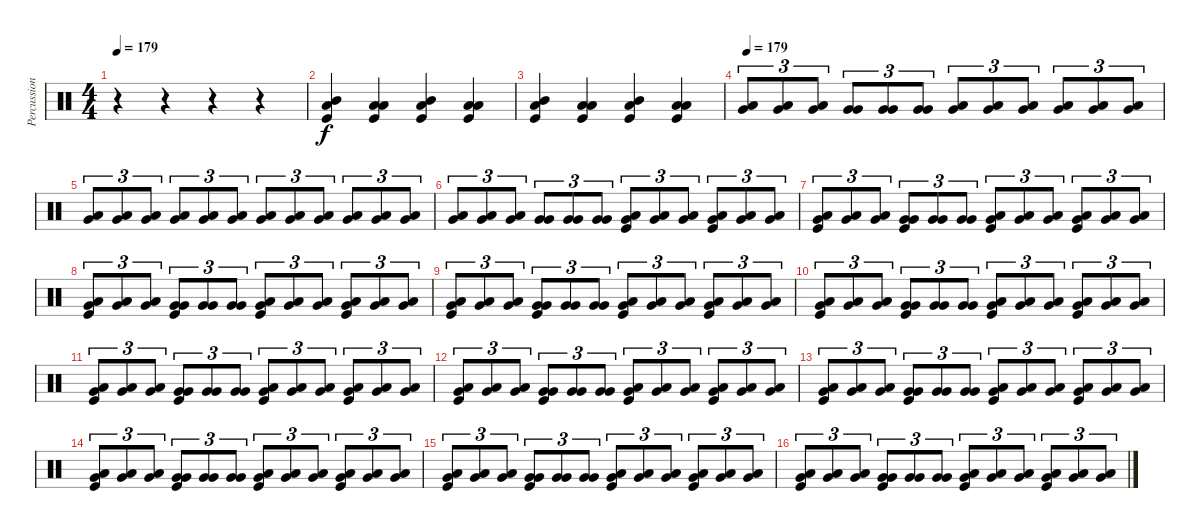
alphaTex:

\track ("Percussion" "Percussion") {instrument percussion}
\staff {score}
\articulation defaults
\ts (4 4)
\tempo 179
\tempo 223
\tempo 179
\clef neutral
\ks c
r.4{dy f} r.4 r.4 r.4 |
("Mid Tom (hit)" "Low Tom (hit)" "Kick (hit)").4 ("Low Floor Tom (hit)" "Low Floor Tom (hit)" "Kick (hit)").4 ("Mid Tom (hit)" "Low Tom (hit)" "Kick (hit)").4 ("Low Floor Tom (hit)" "Low Floor Tom (hit)" "Kick (hit)").4 |
("Mid Tom (hit)" "Low Tom (hit)" "Kick (hit)").4 ("Low Floor Tom (hit)" "Low Floor Tom (hit)" "Kick (hit)").4 ("Mid Tom (hit)" "Low Tom (hit)" "Kick (hit)").4 ("Low Floor Tom (hit)" "Low Floor Tom (hit)" "Kick (hit)").4 |
\tempo 179
("Low Tom (hit)" "Very Low Tom (hit)").8{tu (3 2)} ("Low Tom (hit)" "Very Low Tom (hit)").8{tu (3 2)} ("Low Tom (hit)" "Very Low Tom (hit)").8{tu (3 2)} ("Very Low Tom (hit)" "Very Low Tom (hit)").8{tu (3 2)} ("Very Low Tom (hit)" "Very Low Tom (hit)").8{tu (3 2)} ("Very Low Tom (hit)" "Very Low Tom (hit)").8{tu (3 2)} ("Low Tom (hit)" "Very Low Tom (hit)").8{tu (3 2)} ("Low Tom (hit)" "Very Low Tom (hit)").8{tu (3 2)} ("Low Tom (hit)" "Very Low Tom (hit)").8{tu (3 2)} ("Very Low Tom (hit)" "Low Floor Tom (hit)").8{tu (3 2)} ("Very Low Tom (hit)" "Low Floor Tom (hit)").8{tu (3 2)} ("Very Low Tom (hit)" "Low Floor Tom (hit)").8{tu (3 2)} |
("Low Tom (hit)" "Very Low Tom (hit)").8{tu (3 2)} ("Low Tom (hit)" "Very Low Tom (hit)").8{tu (3 2)} ("Low Tom (hit)" "Very Low Tom (hit)").8{tu (3 2)} ("Very Low Tom (hit)" "Low Floor Tom (hit)").8{tu (3 2)} ("Very Low Tom (hit)" "Low Floor Tom (hit)").8{tu (3 2)} ("Very Low Tom (hit)" "Low Floor Tom (hit)").8{tu (3 2)} ("Low Tom (hit)" "Very Low Tom (hit)").8{tu (3 2)} ("Low Tom (hit)" "Very Low Tom (hit)").8{tu (3 2)} ("Low Tom (hit)" "Very Low Tom (hit)").8{tu (3 2)} ("Very Low Tom (hit)" "Low Floor Tom (hit)").8{tu (3 2)} ("Very Low Tom (hit)" "Low Floor Tom (hit)").8{tu (3 2)} ("Very Low Tom (hit)" "Low Floor Tom (hit)").8{tu (3 2)} |
("Low Tom (hit)" "Very Low Tom (hit)").8{tu (3 2)} ("Low Tom (hit)" "Very Low Tom (hit)").8{tu (3 2)} ("Low Tom (hit)" "Very Low Tom (hit)").8{tu (3 2)} ("Very Low Tom (hit)" "Very Low Tom (hit)").8{tu (3 2)} ("Very Low Tom (hit)" "Very Low Tom (hit)").8{tu (3 2)} ("Very Low Tom (hit)" "Very Low Tom (hit)").8{tu (3 2)} ("Low Tom (hit)" "Very Low Tom (hit)" "Kick (hit)").8{tu (3 2)} ("Low Tom (hit)" "Very Low Tom (hit)").8{tu (3 2)} ("Low Tom (hit)" "Very Low Tom (hit)").8{tu (3 2)} ("Very Low Tom (hit)" "Low Floor Tom (hit)" "Kick (hit)").8{tu (3 2)} ("Very Low Tom (hit)" "Low Floor Tom (hit)").8{tu (3 2)} ("Very Low Tom (hit)" "Low Floor Tom (hit)").8{tu (3 2)} |
("Low Tom (hit)" "Very Low Tom (hit)" "Kick (hit)").8{tu (3 2)} ("Low Tom (hit)" "Very Low Tom (hit)").8{tu (3 2)} ("Low Tom (hit)" "Very Low Tom (hit)").8{tu (3 2)} ("Very Low Tom (hit)" "Very Low Tom (hit)" "Kick (hit)").8{tu (3 2)} ("Very Low Tom (hit)" "Very Low Tom (hit)").8{tu (3 2)} ("Very Low Tom (hit)" "Very Low Tom (hit)").8{tu (3 2)} ("Low Tom (hit)" "Very Low Tom (hit)" "Kick (hit)").8{tu (3 2)} ("Low Tom (hit)" "Very Low Tom (hit)").8{tu (3 2)} ("Low Tom (hit)" "Very Low Tom (hit)").8{tu (3 2)} ("Very Low Tom (hit)" "Low Floor Tom (hit)" "Kick (hit)").8{tu (3 2)} ("Very Low Tom (hit)" "Low Floor Tom (hit)").8{tu (3 2)} ("Very Low Tom (hit)" "Low Floor Tom (hit)").8{tu (3 2)} |
("Low Tom (hit)" "Very Low Tom (hit)" "Kick (hit)").8{tu (3 2)} ("Low Tom (hit)" "Very Low Tom (hit)").8{tu (3 2)} ("Low Tom (hit)" "Very Low Tom (hit)").8{tu (3 2)} ("Very Low Tom (hit)" "Very Low Tom (hit)" "Kick (hit)").8{tu (3 2)} ("Very Low Tom (hit)" "Very Low Tom (hit)").8{tu (3 2)} ("Very Low Tom (hit)" "Very Low Tom (hit)").8{tu (3 2)} ("Low Tom (hit)" "Very Low Tom (hit)" "Kick (hit)").8{tu (3 2)} ("Low Tom (hit)" "Very Low Tom (hit)").8{tu (3 2)} ("Low Tom (hit)" "Very Low Tom (hit)").8{tu (3 2)} ("Very Low Tom (hit)" "Low Floor Tom (hit)" "Kick (hit)").8{tu (3 2)} ("Very Low Tom (hit)" "Low Floor Tom (hit)").8{tu (3 2)} ("Very Low Tom (hit)" "Low Floor Tom (hit)").8{tu (3 2)} |
("Low Tom (hit)" "Very Low Tom (hit)" "Kick (hit)").8{tu (3 2)} ("Low Tom (hit)" "Very Low Tom (hit)").8{tu (3 2)} ("Low Tom (hit)" "Very Low Tom (hit)").8{tu (3 2)} ("Very Low Tom (hit)" "Very Low Tom (hit)" "Kick (hit)").8{tu (3 2)} ("Very Low Tom (hit)" "Very Low Tom (hit)").8{tu (3 2)} ("Very Low Tom (hit)" "Very Low Tom (hit)").8{tu (3 2)} ("Low Tom (hit)" "Very Low Tom (hit)" "Kick (hit)").8{tu (3 2)} ("Low Tom (hit)" "Very Low Tom (hit)").8{tu (3 2)} ("Low Tom (hit)" "Very Low Tom (hit)").8{tu (3 2)} ("Very Low Tom (hit)" "Low Floor Tom (hit)" "Kick (hit)").8{tu (3 2)} ("Very Low Tom (hit)" "Low Floor Tom (hit)").8{tu (3 2)} ("Very Low Tom (hit)" "Low Floor Tom (hit)").8{tu (3 2)} |
("Low Tom (hit)" "Very Low Tom (hit)" "Kick (hit)").8{tu (3 2)} ("Low Tom (hit)" "Very Low Tom (hit)").8{tu (3 2)} ("Low Tom (hit)" "Very Low Tom (hit)").8{tu (3 2)} ("Very Low Tom (hit)" "Very Low Tom (hit)" "Kick (hit)").8{tu (3 2)} ("Very Low Tom (hit)" "Very Low Tom (hit)").8{tu (3 2)} ("Very Low Tom (hit)" "Very Low Tom (hit)").8{tu (3 2)} ("Low Tom (hit)" "Very Low Tom (hit)" "Kick (hit)").8{tu (3 2)} ("Low Tom (hit)" "Very Low Tom (hit)").8{tu (3 2)} ("Low Tom (hit)" "Very Low Tom (hit)").8{tu (3 2)} ("Very Low Tom (hit)" "Low Floor Tom (hit)" "Kick (hit)").8{tu (3 2)} ("Very Low Tom (hit)" "Low Floor Tom (hit)").8{tu (3 2)} ("Very Low Tom (hit)" "Low Floor Tom (hit)").8{tu (3 2)} |
("Low Tom (hit)" "Very Low Tom (hit)" "Kick (hit)").8{tu (3 2)} ("Low Tom (hit)" "Very Low Tom (hit)").8{tu (3 2)} ("Low Tom (hit)" "Very Low Tom (hit)").8{tu (3 2)} ("Very Low Tom (hit)" "Very Low Tom (hit)" "Kick (hit)").8{tu (3 2)} ("Very Low Tom (hit)" "Very Low Tom (hit)").8{tu (3 2)} ("Very Low Tom (hit)" "Very Low Tom (hit)").8{tu (3 2)} ("Low Tom (hit)" "Very Low Tom (hit)" "Kick (hit)").8{tu (3 2)} ("Low Tom (hit)" "Very Low Tom (hit)").8{tu (3 2)} ("Low Tom (hit)" "Very Low Tom (hit)").8{tu (3 2)} ("Very Low Tom (hit)" "Low Floor Tom (hit)" "Kick (hit)").8{tu (3 2)} ("Very Low Tom (hit)" "Low Floor Tom (hit)").8{tu (3 2)} ("Very Low Tom (hit)" "Low Floor Tom (hit)").8{tu (3 2)} |
("Low Tom (hit)" "Very Low Tom (hit)" "Kick (hit)").8{tu (3 2)} ("Low Tom (hit)" "Very Low Tom (hit)").8{tu (3 2)} ("Low Tom (hit)" "Very Low Tom (hit)").8{tu (3 2)} ("Very Low Tom (hit)" "Very Low Tom (hit)" "Kick (hit)").8{tu (3 2)} ("Very Low Tom (hit)" "Very Low Tom (hit)").8{tu (3 2)} ("Very Low Tom (hit)" "Very Low Tom (hit)").8{tu (3 2)} ("Low Tom (hit)" "Very Low Tom (hit)" "Kick (hit)").8{tu (3 2)} ("Low Tom (hit)" "Very Low Tom (hit)").8{tu (3 2)} ("Low Tom (hit)" "Very Low Tom (hit)").8{tu (3 2)} ("Very Low Tom (hit)" "Low Floor Tom (hit)" "Kick (hit)").8{tu (3 2)} ("Very Low Tom (hit)" "Low Floor Tom (hit)").8{tu (3 2)} ("Very Low Tom (hit)" "Low Floor Tom (hit)").8{tu (3 2)} |
("Low Tom (hit)" "Very Low Tom (hit)" "Kick (hit)").8{tu (3 2)} ("Low Tom (hit)" "Very Low Tom (hit)").8{tu (3 2)} ("Low Tom (hit)" "Very Low Tom (hit)").8{tu (3 2)} ("Very Low Tom (hit)" "Very Low Tom (hit)" "Kick (hit)").8{tu (3 2)} ("Very Low Tom (hit)" "Very Low Tom (hit)").8{tu (3 2)} ("Very Low Tom (hit)" "Very Low Tom (hit)").8{tu (3 2)} ("Low Tom (hit)" "Very Low Tom (hit)" "Kick (hit)").8{tu (3 2)} ("Low Tom (hit)" "Very Low Tom (hit)").8{tu (3 2)} ("Low Tom (hit)" "Very Low Tom (hit)").8{tu (3 2)} ("Very Low Tom (hit)" "Low Floor Tom (hit)" "Kick (hit)").8{tu (3 2)} ("Very Low Tom (hit)" "Low Floor Tom (hit)").8{tu (3 2)} ("Very Low Tom (hit)" "Low Floor Tom (hit)").8{tu (3 2)} |
("Low Tom (hit)" "Very Low Tom (hit)" "Kick (hit)").8{tu (3 2)} ("Low Tom (hit)" "Very Low Tom (hit)").8{tu (3 2)} ("Low Tom (hit)" "Very Low Tom (hit)").8{tu (3 2)} ("Very Low Tom (hit)" "Very Low Tom (hit)" "Kick (hit)").8{tu (3 2)} ("Very Low Tom (hit)" "Very Low Tom (hit)").8{tu (3 2)} ("Very Low Tom (hit)" "Very Low Tom (hit)").8{tu (3 2)} ("Low Tom (hit)" "Very Low Tom (hit)" "Kick (hit)").8{tu (3 2)} ("Low Tom (hit)" "Very Low Tom (hit)").8{tu (3 2)} ("Low Tom (hit)" "Very Low Tom (hit)").8{tu (3 2)} ("Very Low Tom (hit)" "Low Floor Tom (hit)" "Kick (hit)").8{tu (3 2)} ("Very Low Tom (hit)" "Low Floor Tom (hit)").8{tu (3 2)} ("Very Low Tom (hit)" "Low Floor Tom (hit)").8{tu (3 2)} |
("Low Tom (hit)" "Very Low Tom (hit)" "Kick (hit)").8{tu (3 2)} ("Low Tom (hit)" "Very Low Tom (hit)").8{tu (3 2)} ("Low Tom (hit)" "Very Low Tom (hit)").8{tu (3 2)} ("Very Low Tom (hit)" "Very Low Tom (hit)" "Kick (hit)").8{tu (3 2)} ("Very Low Tom (hit)" "Very Low Tom (hit)").8{tu (3 2)} ("Very Low Tom (hit)" "Very Low Tom (hit)").8{tu (3 2)} ("Low Tom (hit)" "Very Low Tom (hit)" "Kick (hit)").8{tu (3 2)} ("Low Tom (hit)" "Very Low Tom (hit)").8{tu (3 2)} ("Low Tom (hit)" "Very Low Tom (hit)").8{tu (3 2)} ("Very Low Tom (hit)" "Low Floor Tom (hit)" "Kick (hit)").8{tu (3 2)} ("Very Low Tom (hit)" "Low Floor Tom (hit)").8{tu (3 2)} ("Very Low Tom (hit)" "Low Floor Tom (hit)").8{tu (3 2)} |
("Low Tom (hit)" "Very Low Tom (hit)" "Kick (hit)").8{tu (3 2)} ("Low Tom (hit)" "Very Low Tom (hit)").8{tu (3 2)} ("Low Tom (hit)" "Very Low Tom (hit)").8{tu (3 2)} ("Very Low Tom (hit)" "Very Low Tom (hit)" "Kick (hit)").8{tu (3 2)} ("Very Low Tom (hit)" "Very Low Tom (hit)").8{tu (3 2)} ("Very Low Tom (hit)" "Very Low Tom (hit)").8{tu (3 2)} ("Low Tom (hit)" "Very Low Tom (hit)" "Kick (hit)").8{tu (3 2)} ("Low Tom (hit)" "Very Low Tom (hit)").8{tu (3 2)} ("Low Tom (hit)" "Very Low Tom (hit)").8{tu (3 2)} ("Very Low Tom (hit)" "Low Floor Tom (hit)" "Kick (hit)").8{tu (3 2)} ("Very Low Tom (hit)" "Low Floor Tom (hit)").8{tu (3 2)} ("Very Low Tom (hit)" "Low Floor Tom (hit)").8{tu (3 2)}
